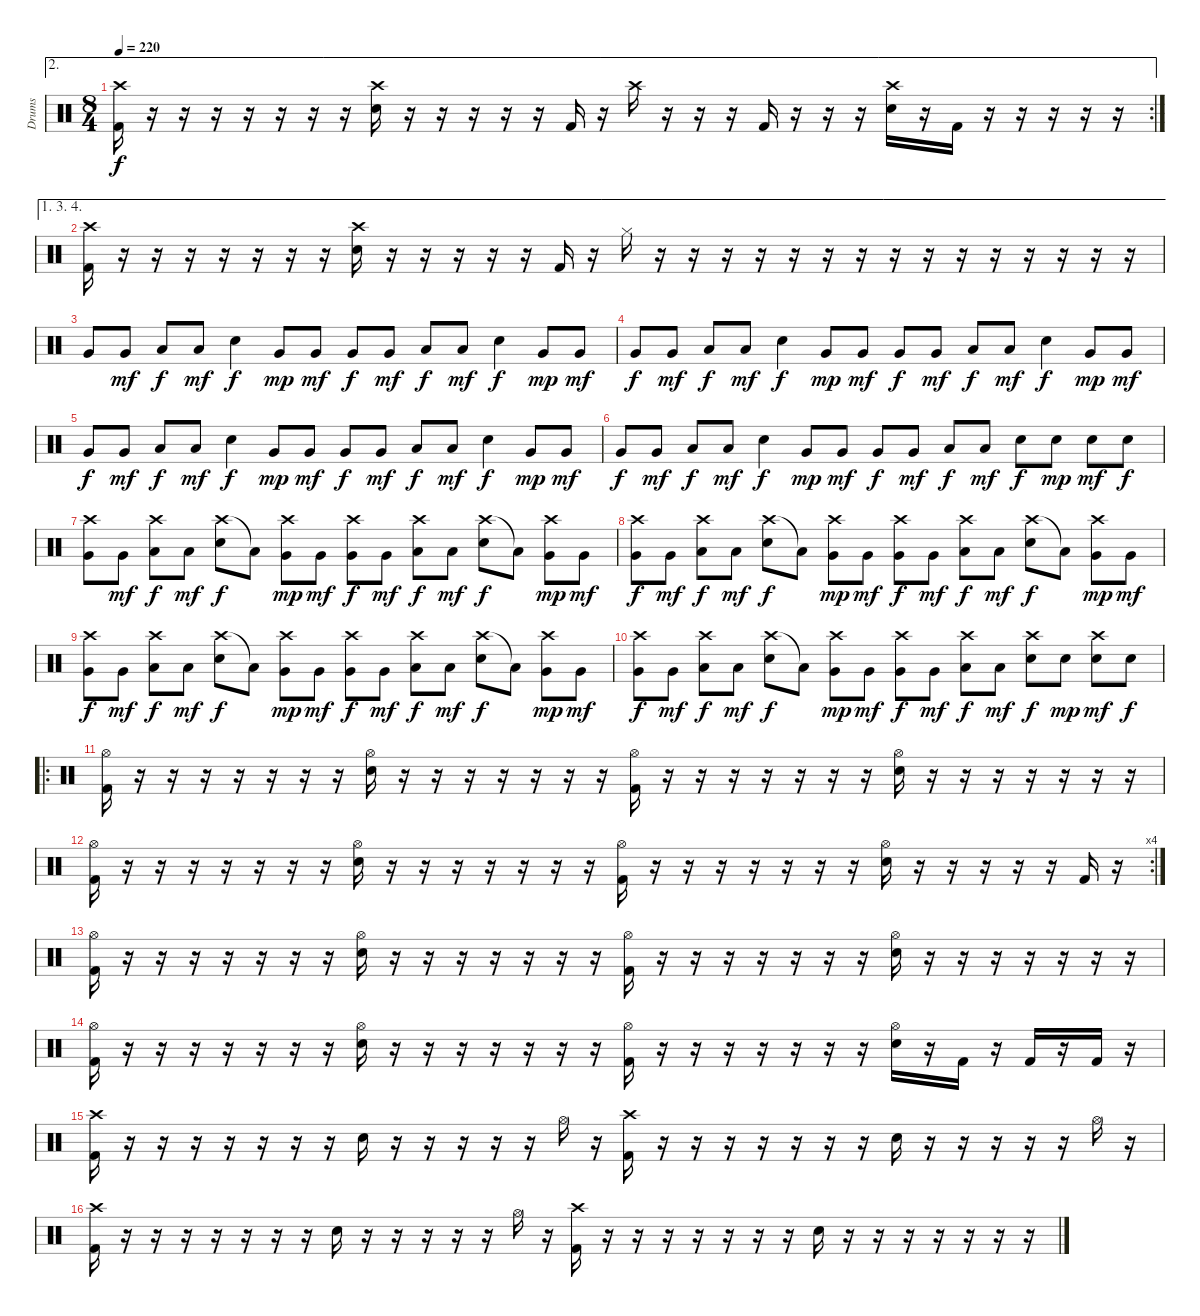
\track ("Drums" "Drums") {instrument percussion}
\staff {score}
\articulation defaults
\ae 2
\rc 2
\ts (8 4)
\tempo 220
\clef neutral
\ks c
("Crash high (hit)" "Kick (hit) 2").16{dy f} r.16 r.16 r.16 r.16 r.16 r.16 r.16 ("Crash high (hit)" "Snare (hit) 2").16 r.16 r.16 r.16 r.16 r.16 "Kick (hit) 2".16 r.16 "Crash high (hit)".16 r.16 r.16 r.16 "Kick (hit) 2".16 r.16 r.16 r.16 ("Crash high (hit)" "Snare (hit) 2").16 r.16 "Kick (hit) 2".16 r.16 r.16 r.16 r.16 r.16 |
\ae (1 3 4)
("Crash high (hit)" "Kick (hit) 2").16 r.16 r.16 r.16 r.16 r.16 r.16 r.16 ("Crash high (hit)" "Snare (hit) 2").16 r.16 r.16 r.16 r.16 r.16 "Kick (hit) 2".16 r.16 "Hi-Hat (closed)".16 r.16 r.16 r.16 r.16 r.16 r.16 r.16 r.16 r.16 r.16 r.16 r.16 r.16 r.16 r.16 |
"Very Low Tom (hit)".8 "Very Low Tom (hit)".8{dy mf} "Low Floor Tom (hit)".8{dy f} "Low Floor Tom (hit)".8{dy mf} "Snare (hit) 2".4{dy f} "Very Low Tom (hit)".8{dy mp} "Very Low Tom (hit)".8{dy mf} "Very Low Tom (hit)".8{dy f} "Very Low Tom (hit)".8{dy mf} "Low Floor Tom (hit)".8{dy f} "Low Floor Tom (hit)".8{dy mf} "Snare (hit) 2".4{dy f} "Very Low Tom (hit)".8{dy mp} "Very Low Tom (hit)".8{dy mf} |
"Very Low Tom (hit)".8{dy f} "Very Low Tom (hit)".8{dy mf} "Low Floor Tom (hit)".8{dy f} "Low Floor Tom (hit)".8{dy mf} "Snare (hit) 2".4{dy f} "Very Low Tom (hit)".8{dy mp} "Very Low Tom (hit)".8{dy mf} "Very Low Tom (hit)".8{dy f} "Very Low Tom (hit)".8{dy mf} "Low Floor Tom (hit)".8{dy f} "Low Floor Tom (hit)".8{dy mf} "Snare (hit) 2".4{dy f} "Very Low Tom (hit)".8{dy mp} "Very Low Tom (hit)".8{dy mf} |
"Very Low Tom (hit)".8{dy f} "Very Low Tom (hit)".8{dy mf} "Low Floor Tom (hit)".8{dy f} "Low Floor Tom (hit)".8{dy mf} "Snare (hit) 2".4{dy f} "Very Low Tom (hit)".8{dy mp} "Very Low Tom (hit)".8{dy mf} "Very Low Tom (hit)".8{dy f} "Very Low Tom (hit)".8{dy mf} "Low Floor Tom (hit)".8{dy f} "Low Floor Tom (hit)".8{dy mf} "Snare (hit) 2".4{dy f} "Very Low Tom (hit)".8{dy mp} "Very Low Tom (hit)".8{dy mf} |
"Very Low Tom (hit)".8{dy f} "Very Low Tom (hit)".8{dy mf} "Low Floor Tom (hit)".8{dy f} "Low Floor Tom (hit)".8{dy mf} "Snare (hit) 2".4{dy f} "Very Low Tom (hit)".8{dy mp} "Very Low Tom (hit)".8{dy mf} "Very Low Tom (hit)".8{dy f} "Very Low Tom (hit)".8{dy mf} "Low Floor Tom (hit)".8{dy f} "Low Floor Tom (hit)".8{dy mf} "Snare (hit) 2".8{dy f} "Snare (hit) 2".8{dy mp} "Snare (hit) 2".8{dy mf} "Snare (hit) 2".8{dy f} |
("Crash high (hit)" "Very Low Tom (hit)").8 "Very Low Tom (hit)".8{dy mf} ("Crash high (hit)" "Low Floor Tom (hit)").8{dy f} "Low Floor Tom (hit)".8{dy mf} ("Crash high (hit)" "Snare (hit) 2").8{dy f} "Low Floor Tom (hit)"{t}.8 ("Crash high (hit)" "Very Low Tom (hit)").8{dy mp} "Very Low Tom (hit)".8{dy mf} ("Crash high (hit)" "Very Low Tom (hit)").8{dy f} "Very Low Tom (hit)".8{dy mf} ("Crash high (hit)" "Low Floor Tom (hit)").8{dy f} "Low Floor Tom (hit)".8{dy mf} ("Crash high (hit)" "Snare (hit) 2").8{dy f} "Low Floor Tom (hit)"{t}.8 ("Crash high (hit)" "Very Low Tom (hit)").8{dy mp} "Very Low Tom (hit)".8{dy mf} |
("Crash high (hit)" "Very Low Tom (hit)").8{dy f} "Very Low Tom (hit)".8{dy mf} ("Crash high (hit)" "Low Floor Tom (hit)").8{dy f} "Low Floor Tom (hit)".8{dy mf} ("Crash high (hit)" "Snare (hit) 2").8{dy f} "Low Floor Tom (hit)"{t}.8 ("Crash high (hit)" "Very Low Tom (hit)").8{dy mp} "Very Low Tom (hit)".8{dy mf} ("Crash high (hit)" "Very Low Tom (hit)").8{dy f} "Very Low Tom (hit)".8{dy mf} ("Crash high (hit)" "Low Floor Tom (hit)").8{dy f} "Low Floor Tom (hit)".8{dy mf} ("Crash high (hit)" "Snare (hit) 2").8{dy f} "Low Floor Tom (hit)"{t}.8 ("Crash high (hit)" "Very Low Tom (hit)").8{dy mp} "Very Low Tom (hit)".8{dy mf} |
("Crash high (hit)" "Very Low Tom (hit)").8{dy f} "Very Low Tom (hit)".8{dy mf} ("Crash high (hit)" "Low Floor Tom (hit)").8{dy f} "Low Floor Tom (hit)".8{dy mf} ("Crash high (hit)" "Snare (hit) 2").8{dy f} "Low Floor Tom (hit)"{t}.8 ("Crash high (hit)" "Very Low Tom (hit)").8{dy mp} "Very Low Tom (hit)".8{dy mf} ("Crash high (hit)" "Very Low Tom (hit)").8{dy f} "Very Low Tom (hit)".8{dy mf} ("Crash high (hit)" "Low Floor Tom (hit)").8{dy f} "Low Floor Tom (hit)".8{dy mf} ("Crash high (hit)" "Snare (hit) 2").8{dy f} "Low Floor Tom (hit)"{t}.8 ("Crash high (hit)" "Very Low Tom (hit)").8{dy mp} "Very Low Tom (hit)".8{dy mf} |
("Crash high (hit)" "Very Low Tom (hit)").8{dy f} "Very Low Tom (hit)".8{dy mf} ("Crash high (hit)" "Low Floor Tom (hit)").8{dy f} "Low Floor Tom (hit)".8{dy mf} ("Crash high (hit)" "Snare (hit) 2").8{dy f} "Low Floor Tom (hit)"{t}.8 ("Crash high (hit)" "Very Low Tom (hit)").8{dy mp} "Very Low Tom (hit)".8{dy mf} ("Crash high (hit)" "Very Low Tom (hit)").8{dy f} "Very Low Tom (hit)".8{dy mf} ("Crash high (hit)" "Low Floor Tom (hit)").8{dy f} "Low Floor Tom (hit)".8{dy mf} ("Crash high (hit)" "Snare (hit) 2").8{dy f} "Snare (hit) 2".8{dy mp} ("Crash high (hit)" "Snare (hit) 2").8{dy mf} "Snare (hit) 2".8{dy f} |
\ro
("Hi-Hat (open)" "Kick (hit) 2").16 r.16 r.16 r.16 r.16 r.16 r.16 r.16 ("Hi-Hat (open)" "Snare (hit) 2").16 r.16 r.16 r.16 r.16 r.16 r.16 r.16 ("Hi-Hat (open)" "Kick (hit) 2").16 r.16 r.16 r.16 r.16 r.16 r.16 r.16 ("Hi-Hat (open)" "Snare (hit) 2").16 r.16 r.16 r.16 r.16 r.16 r.16 r.16 |
\rc 4
("Hi-Hat (open)" "Kick (hit) 2").16 r.16 r.16 r.16 r.16 r.16 r.16 r.16 ("Hi-Hat (open)" "Snare (hit) 2").16 r.16 r.16 r.16 r.16 r.16 r.16 r.16 ("Hi-Hat (open)" "Kick (hit) 2").16 r.16 r.16 r.16 r.16 r.16 r.16 r.16 ("Hi-Hat (open)" "Snare (hit) 2").16 r.16 r.16 r.16 r.16 r.16 "Kick (hit) 2".16 r.16 |
("Hi-Hat (open)" "Kick (hit) 2").16 r.16 r.16 r.16 r.16 r.16 r.16 r.16 ("Hi-Hat (open)" "Snare (hit) 2").16 r.16 r.16 r.16 r.16 r.16 r.16 r.16 ("Hi-Hat (open)" "Kick (hit) 2").16 r.16 r.16 r.16 r.16 r.16 r.16 r.16 ("Hi-Hat (open)" "Snare (hit) 2").16 r.16 r.16 r.16 r.16 r.16 r.16 r.16 |
("Hi-Hat (open)" "Kick (hit) 2").16 r.16 r.16 r.16 r.16 r.16 r.16 r.16 ("Hi-Hat (open)" "Snare (hit) 2").16 r.16 r.16 r.16 r.16 r.16 r.16 r.16 ("Hi-Hat (open)" "Kick (hit) 2").16 r.16 r.16 r.16 r.16 r.16 r.16 r.16 ("Hi-Hat (open)" "Snare (hit) 2").16 r.16 "Kick (hit) 2".16 r.16 "Kick (hit) 2".16 r.16 "Kick (hit) 2".16 r.16 |
("Crash high (hit)" "Kick (hit) 2").16 r.16 r.16 r.16 r.16 r.16 r.16 r.16 "Snare (hit) 2".16 r.16 r.16 r.16 r.16 r.16 "Hi-Hat (open)".16 r.16 ("Crash high (hit)" "Kick (hit) 2").16 r.16 r.16 r.16 r.16 r.16 r.16 r.16 "Snare (hit) 2".16 r.16 r.16 r.16 r.16 r.16 "Hi-Hat (open)".16 r.16 |
("Crash high (hit)" "Kick (hit) 2").16 r.16 r.16 r.16 r.16 r.16 r.16 r.16 "Snare (hit) 2".16 r.16 r.16 r.16 r.16 r.16 "Hi-Hat (open)".16 r.16 ("Crash high (hit)" "Kick (hit) 2").16 r.16 r.16 r.16 r.16 r.16 r.16 r.16 "Snare (hit) 2".16 r.16 r.16 r.16 r.16 r.16 r.16 r.16
